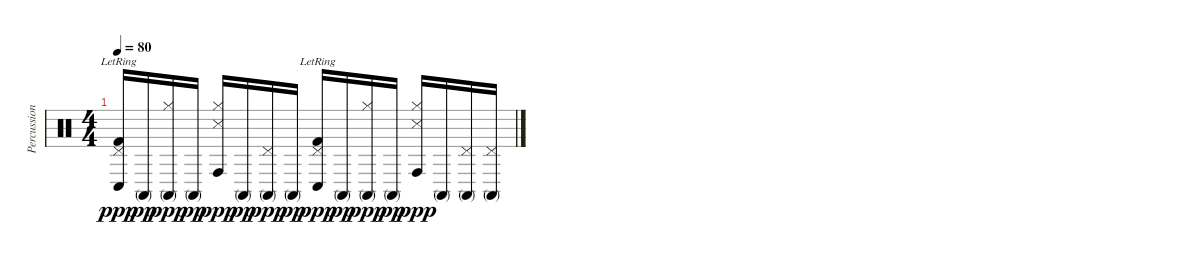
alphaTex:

\track ("Percussions / Batterie" "Percussion") {instrument percussion}
\staff {score}
\articulation defaults
\ts (4 4)
\tempo 80
\clef neutral
\ks c
("Conga low (hit)" "Pedal Hi-Hat (hit)" "Kick (hit) 2"{lr}).16{dy ppp} "Conga high (mute)".16{dy pp} ("Conga high (mute)" "Hi-Hat (closed)").16{dy ppp} "Conga high (mute)".16{dy pp} ("Conga high (hit)" "Hi-Hat (closed)" "Snare (side stick) 3").16{dy ppp} "Conga high (mute)".16{dy pp} ("Conga high (mute)" "Pedal Hi-Hat (hit)").16{dy ppp} "Conga high (mute)".16{dy pp} ("Conga low (hit)" "Pedal Hi-Hat (hit)" "Kick (hit) 2"{lr}).16{dy ppp} "Conga high (mute)".16{dy pp} ("Conga high (mute)" "Hi-Hat (closed)").16{dy ppp} "Conga high (mute)".16{dy pp} ("Conga high (hit)" "Hi-Hat (closed)" "Snare (side stick) 3").16{dy ppp} "Conga high (mute)".16 ("Conga high (mute)" "Pedal Hi-Hat (hit)").16 ("Conga high (mute)" "Pedal Hi-Hat (hit)").16
